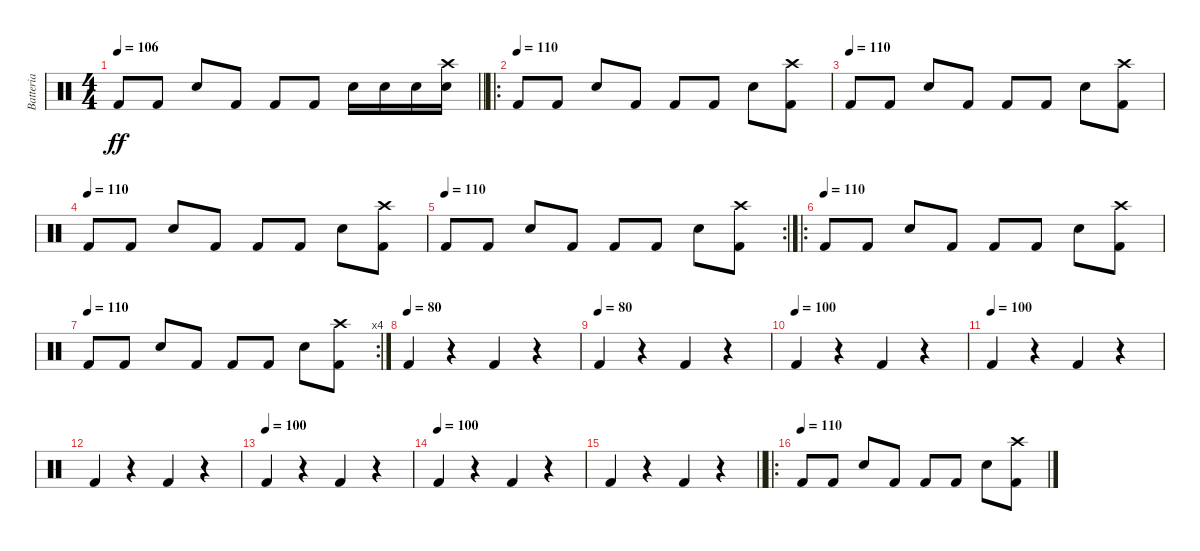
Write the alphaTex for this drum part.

\track ("Batteria" "Batteria") {instrument percussion}
\staff {score}
\articulation defaults
\ts (4 4)
\tempo 110
\tempo 106
\clef neutral
\barLineRight lightlight
\ks c "Kick (hit) 2".8{dy ff} "Kick (hit) 2".8 "Snare (hit) 2".8 "Kick (hit) 2".8 "Kick (hit) 2".8 "Kick (hit) 2".8 "Snare (hit) 2".16 "Snare (hit) 2".16 "Snare (hit) 2".16
("Snare (hit) 2" "Crash high (hit)").16 |
\ro
\tempo (110)
"Kick (hit) 2".8 "Kick (hit) 2".8 "Snare (hit) 2".8 "Kick (hit) 2".8 "Kick (hit) 2".8 "Kick (hit) 2".8 "Snare (hit) 2".8 ("Crash high (hit)" "Kick (hit) 2").8 |
\tempo (110)
"Kick (hit) 2".8 "Kick (hit) 2".8 "Snare (hit) 2".8 "Kick (hit) 2".8 "Kick (hit) 2".8 "Kick (hit) 2".8 "Snare (hit) 2".8 ("Crash high (hit)" "Kick (hit) 2").8 |
\tempo (110)
"Kick (hit) 2".8 "Kick (hit) 2".8 "Snare (hit) 2".8 "Kick (hit) 2".8 "Kick (hit) 2".8 "Kick (hit) 2".8 "Snare (hit) 2".8 ("Crash high (hit)" "Kick (hit) 2").8 |
\rc 2
\tempo (110)
"Kick (hit) 2".8 "Kick (hit) 2".8 "Snare (hit) 2".8 "Kick (hit) 2".8 "Kick (hit) 2".8 "Kick (hit) 2".8 "Snare (hit) 2".8 ("Crash high (hit)" "Kick (hit) 2").8 |
\ro
\tempo (110)
"Kick (hit) 2".8 "Kick (hit) 2".8 "Snare (hit) 2".8 "Kick (hit) 2".8 "Kick (hit) 2".8 "Kick (hit) 2".8 "Snare (hit) 2".8 ("Crash high (hit)" "Kick (hit) 2").8 |
\rc 4
\tempo (110)
"Kick (hit) 2".8 "Kick (hit) 2".8 "Snare (hit) 2".8 "Kick (hit) 2".8 "Kick (hit) 2".8 "Kick (hit) 2".8 "Snare (hit) 2".8 ("Crash high (hit)" "Kick (hit) 2").8 |
\tempo (80)
"Kick (hit) 2".4 r.4 "Kick (hit) 2".4 r.4 |
\tempo (80)
"Kick (hit) 2".4 r.4 "Kick (hit) 2".4 r.4 |
\tempo (100)
"Kick (hit) 2".4 r.4 "Kick (hit) 2".4 r.4 |
\tempo (100)
"Kick (hit) 2".4 r.4 "Kick (hit) 2".4 r.4 |
"Kick (hit) 2".4 r.4 "Kick (hit) 2".4 r.4 |
\tempo (100)
"Kick (hit) 2".4 r.4 "Kick (hit) 2".4 r.4 |
\tempo (100)
"Kick (hit) 2".4 r.4 "Kick (hit) 2".4 r.4 |
\barLineRight lightlight "Kick (hit) 2".4
r.4 "Kick (hit) 2".4 r.4 |
\ro
\tempo (110)
"Kick (hit) 2".8 "Kick (hit) 2".8 "Snare (hit) 2".8 "Kick (hit) 2".8 "Kick (hit) 2".8 "Kick (hit) 2".8 "Snare (hit) 2".8 ("Crash high (hit)" "Kick (hit) 2").8
